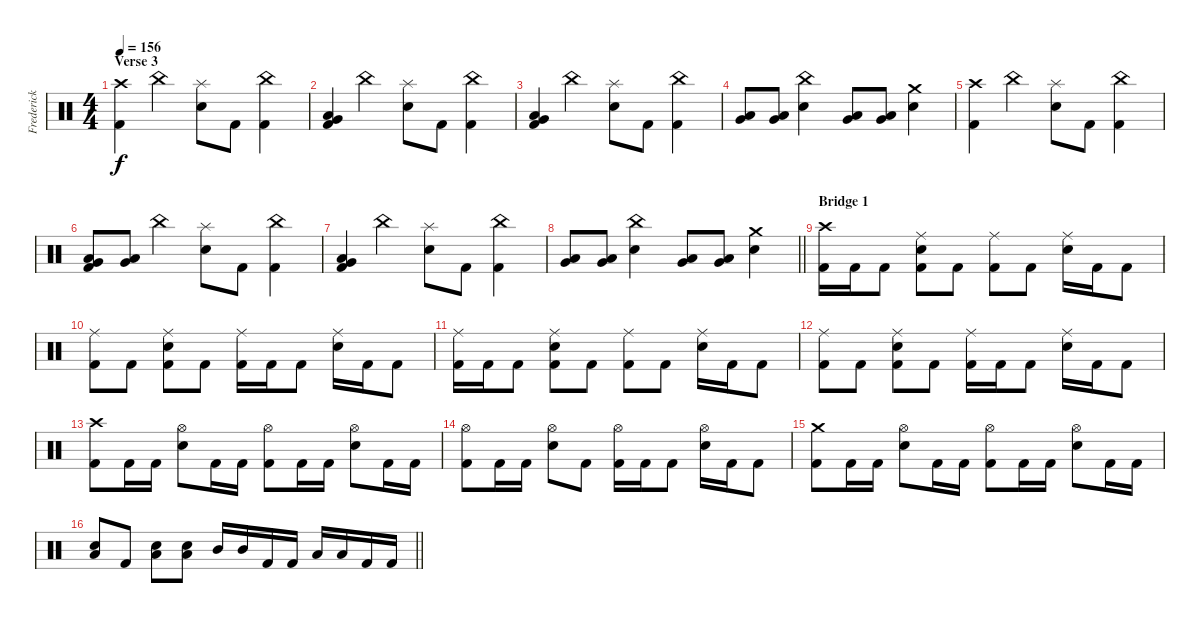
\track ("Frederick Ehmke" "Frederick ") {instrument percussion}
\staff {score}
\articulation defaults
\ts (4 4)
\section ("" "Verse 3")
\tempo 156
\clef neutral
\ks c
("Crash high (hit)" "Kick (hit) 2").4{dy f} "China (hit)".4 ("Splash (hit)" "Electric Snare (hit)").8 "Kick (hit) 2".8 ("China (hit)" "Kick (hit) 2").4 |
("Kick (hit) 2" "Very Low Tom (hit)" "Low Tom (hit)").4 "China (hit)".4 ("Splash (hit)" "Electric Snare (hit)").8 "Kick (hit) 2".8 ("China (hit)" "Kick (hit) 2").4 |
("Kick (hit) 2" "Very Low Tom (hit)" "Low Floor Tom (hit)").4 "China (hit)".4 ("Splash (hit)" "Electric Snare (hit)").8 "Kick (hit) 2".8 ("China (hit)" "Kick (hit) 2").4 |
("Low Tom (hit)" "Very Low Tom (hit)").8 ("Low Tom (hit)" "Very Low Tom (hit)").8 ("China (hit)" "Electric Snare (hit)").4 ("Very Low Tom (hit)" "Low Floor Tom (hit)").8 ("Very Low Tom (hit)" "Low Floor Tom (hit)").8 ("Crash medium (hit)" "Electric Snare (hit)").4 |
("Crash high (hit)" "Kick (hit) 2").4 "China (hit)".4 ("Splash (hit)" "Electric Snare (hit)").8 "Kick (hit) 2".8 ("China (hit)" "Kick (hit) 2").4 |
("Kick (hit) 2" "Very Low Tom (hit)" "Low Tom (hit)").8 ("Very Low Tom (hit)" "Low Tom (hit)").8 "China (hit)".4 ("Splash (hit)" "Electric Snare (hit)").8 "Kick (hit) 2".8 ("China (hit)" "Kick (hit) 2").4 |
("Kick (hit) 2" "Very Low Tom (hit)" "Low Floor Tom (hit)").4 "China (hit)".4 ("Splash (hit)" "Electric Snare (hit)").8 "Kick (hit) 2".8 ("China (hit)" "Kick (hit) 2").4 |
\barLineRight lightlight
("Low Tom (hit)" "Very Low Tom (hit)").8 ("Low Tom (hit)" "Very Low Tom (hit)").8 ("China (hit)" "Electric Snare (hit)").4 ("Very Low Tom (hit)" "Low Floor Tom (hit)").8 ("Very Low Tom (hit)" "Low Floor Tom (hit)").8 ("Crash medium (hit)" "Electric Snare (hit)").4 |
\section ("" "Bridge 1")
("Crash high (hit)" "Kick (hit) 2").16 "Kick (hit) 2".16 "Kick (hit) 2".8 ("Ride (middle)" "Kick (hit) 2" "Electric Snare (hit)").8 "Kick (hit) 2".8 ("Ride (middle)" "Kick (hit) 2").8 "Kick (hit) 2".8 ("Ride (middle)" "Electric Snare (hit)").16 "Kick (hit) 2".16 "Kick (hit) 2".8 |
("Ride (middle)" "Kick (hit) 2").8 "Kick (hit) 2".8 ("Ride (middle)" "Kick (hit) 2" "Electric Snare (hit)").8 "Kick (hit) 2".8 ("Ride (middle)" "Kick (hit) 2").16 "Kick (hit) 2".16 "Kick (hit) 2".8 ("Ride (middle)" "Electric Snare (hit)").16 "Kick (hit) 2".16 "Kick (hit) 2".8 |
("Ride (middle)" "Kick (hit) 2").16 "Kick (hit) 2".16 "Kick (hit) 2".8 ("Ride (middle)" "Kick (hit) 2" "Electric Snare (hit)").8 "Kick (hit) 2".8 ("Ride (middle)" "Kick (hit) 2").8 "Kick (hit) 2".8 ("Ride (middle)" "Electric Snare (hit)").16 "Kick (hit) 2".16 "Kick (hit) 2".8 |
("Ride (middle)" "Kick (hit) 2").8 "Kick (hit) 2".8 ("Ride (middle)" "Kick (hit) 2" "Electric Snare (hit)").8 "Kick (hit) 2".8 ("Ride (middle)" "Kick (hit) 2").16 "Kick (hit) 2".16 "Kick (hit) 2".8 ("Ride (middle)" "Electric Snare (hit)").16 "Kick (hit) 2".16 "Kick (hit) 2".8 |
("Crash high (hit)" "Kick (hit) 2").8 "Kick (hit) 2".16 "Kick (hit) 2".16 ("Hi-Hat (open)" "Electric Snare (hit)").8 "Kick (hit) 2".16 "Kick (hit) 2".16 ("Hi-Hat (open)" "Kick (hit) 2").8 "Kick (hit) 2".16 "Kick (hit) 2".16 ("Hi-Hat (open)" "Electric Snare (hit)").8 "Kick (hit) 2".16 "Kick (hit) 2".16 |
("Hi-Hat (open)" "Kick (hit) 2").8 "Kick (hit) 2".16 "Kick (hit) 2".16 ("Hi-Hat (open)" "Electric Snare (hit)").8 "Kick (hit) 2".8 ("Hi-Hat (open)" "Kick (hit) 2").16 "Kick (hit) 2".16 "Kick (hit) 2".8 ("Hi-Hat (open)" "Electric Snare (hit)").16 "Kick (hit) 2".16 "Kick (hit) 2".8 |
("Crash medium (hit)" "Kick (hit) 2").8 "Kick (hit) 2".16 "Kick (hit) 2".16 ("Hi-Hat (open)" "Electric Snare (hit)").8 "Kick (hit) 2".16 "Kick (hit) 2".16 ("Hi-Hat (open)" "Kick (hit) 2").8 "Kick (hit) 2".16 "Kick (hit) 2".16 ("Hi-Hat (open)" "Electric Snare (hit)").8 "Kick (hit) 2".16 "Kick (hit) 2".16 |
\barLineRight lightlight
("Electric Snare (hit)" "Low Floor Tom (hit)").8 "Kick (hit) 2".8 ("Electric Snare (hit)" "Low Floor Tom (hit)").8 ("Electric Snare (hit)" "Low Floor Tom (hit)").8 "Mid Tom (hit)".16 "Mid Tom (hit)".16 "Kick (hit) 2".16 "Kick (hit) 2".16 "Low Tom (hit)".16 "Low Tom (hit)".16 "Kick (hit) 2".16 "Kick (hit) 2".16
